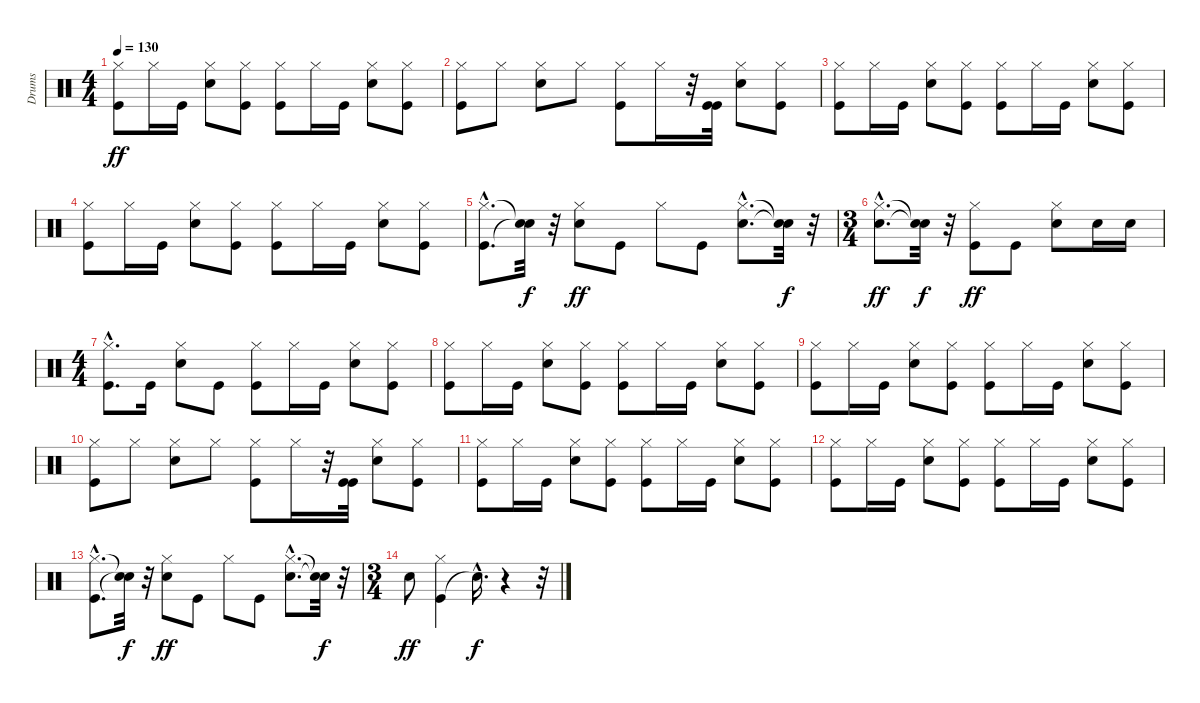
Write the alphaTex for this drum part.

\track ("Drums" "Drums") {instrument percussion}
\staff {score}
\articulation defaults
\ts (4 4)
\tempo 130
\clef neutral
\ks c
("Kick (hit)" "Hi-Hat (closed)").8{dy ff} "Hi-Hat (closed)".16 "Kick (hit)".16 ("Snare (hit) 2" "Hi-Hat (closed)").8 ("Kick (hit)" "Hi-Hat (closed)").8 ("Kick (hit)" "Hi-Hat (closed)").8 "Hi-Hat (closed)".16 "Kick (hit)".16 ("Snare (hit) 2" "Hi-Hat (closed)").8 ("Kick (hit)" "Hi-Hat (closed)").8 |
("Kick (hit)" "Hi-Hat (closed)").8 "Hi-Hat (closed)".8 ("Snare (hit) 2" "Hi-Hat (closed)").8 "Hi-Hat (closed)".8 ("Kick (hit)" "Hi-Hat (closed)").8 "Hi-Hat (closed)".16 r.32 ("Kick (hit)" "Kick (hit)").32 ("Snare (hit) 2" "Hi-Hat (closed)").8 ("Kick (hit)" "Hi-Hat (closed)").8 |
("Kick (hit)" "Hi-Hat (closed)").8 "Hi-Hat (closed)".16 "Kick (hit)".16 ("Snare (hit) 2" "Hi-Hat (closed)").8 ("Kick (hit)" "Hi-Hat (closed)").8 ("Kick (hit)" "Hi-Hat (closed)").8 "Hi-Hat (closed)".16 "Kick (hit)".16 ("Snare (hit) 2" "Hi-Hat (closed)").8 ("Kick (hit)" "Hi-Hat (closed)").8 |
("Kick (hit)" "Hi-Hat (closed)").8 "Hi-Hat (closed)".16 "Kick (hit)".16 ("Snare (hit) 2" "Hi-Hat (closed)").8 ("Kick (hit)" "Hi-Hat (closed)").8 ("Kick (hit)" "Hi-Hat (closed)").8 "Hi-Hat (closed)".16 "Kick (hit)".16 ("Snare (hit) 2" "Hi-Hat (closed)").8 ("Kick (hit)" "Hi-Hat (closed)").8 |
("Kick (hit)"{hac} "Hi-Hat (closed)"{hac}).8{d} ("Snare (hit)"{t} "Snare (hit)"{t}).32{dy f} r.32 ("Snare (hit) 2" "Hi-Hat (closed)").8{dy ff} "Kick (hit)".8 "Hi-Hat (closed)".8 "Kick (hit)".8 ("Snare (hit) 2"{hac} "Hi-Hat (closed)"{hac}).8{d} ("Snare (hit)"{t} "Snare (hit)"{t}).32{dy f} r.32 |
\ts (3 4)
("Snare (hit) 2"{hac} "Hi-Hat (closed)"{hac}).8{d dy ff} ("Snare (hit)"{t} "Snare (hit)"{t}).32{dy f} r.32 ("Kick (hit)" "Hi-Hat (closed)").8{dy ff} "Kick (hit)".8 ("Snare (hit) 2" "Hi-Hat (closed)").8 "Snare (hit) 2".16 "Snare (hit) 2".16 |
\ts (4 4)
("Kick (hit)"{hac} "Hi-Hat (closed)"{hac}).8{d} "Kick (hit)".16 ("Snare (hit) 2" "Hi-Hat (closed)").8 "Kick (hit)".8 ("Kick (hit)" "Hi-Hat (closed)").8 "Hi-Hat (closed)".16 "Kick (hit)".16 ("Snare (hit) 2" "Hi-Hat (closed)").8 ("Kick (hit)" "Hi-Hat (closed)").8 |
("Kick (hit)" "Hi-Hat (closed)").8 "Hi-Hat (closed)".16 "Kick (hit)".16 ("Snare (hit) 2" "Hi-Hat (closed)").8 ("Kick (hit)" "Hi-Hat (closed)").8 ("Kick (hit)" "Hi-Hat (closed)").8 "Hi-Hat (closed)".16 "Kick (hit)".16 ("Snare (hit) 2" "Hi-Hat (closed)").8 ("Kick (hit)" "Hi-Hat (closed)").8 |
("Kick (hit)" "Hi-Hat (closed)").8 "Hi-Hat (closed)".16 "Kick (hit)".16 ("Snare (hit) 2" "Hi-Hat (closed)").8 ("Kick (hit)" "Hi-Hat (closed)").8 ("Kick (hit)" "Hi-Hat (closed)").8 "Hi-Hat (closed)".16 "Kick (hit)".16 ("Snare (hit) 2" "Hi-Hat (closed)").8 ("Kick (hit)" "Hi-Hat (closed)").8 |
("Kick (hit)" "Hi-Hat (closed)").8 "Hi-Hat (closed)".8 ("Snare (hit) 2" "Hi-Hat (closed)").8 "Hi-Hat (closed)".8 ("Kick (hit)" "Hi-Hat (closed)").8 "Hi-Hat (closed)".16 r.32 ("Kick (hit)" "Kick (hit)").32 ("Snare (hit) 2" "Hi-Hat (closed)").8 ("Kick (hit)" "Hi-Hat (closed)").8 |
("Kick (hit)" "Hi-Hat (closed)").8 "Hi-Hat (closed)".16 "Kick (hit)".16 ("Snare (hit) 2" "Hi-Hat (closed)").8 ("Kick (hit)" "Hi-Hat (closed)").8 ("Kick (hit)" "Hi-Hat (closed)").8 "Hi-Hat (closed)".16 "Kick (hit)".16 ("Snare (hit) 2" "Hi-Hat (closed)").8 ("Kick (hit)" "Hi-Hat (closed)").8 |
("Kick (hit)" "Hi-Hat (closed)").8 "Hi-Hat (closed)".16 "Kick (hit)".16 ("Snare (hit) 2" "Hi-Hat (closed)").8 ("Kick (hit)" "Hi-Hat (closed)").8 ("Kick (hit)" "Hi-Hat (closed)").8 "Hi-Hat (closed)".16 "Kick (hit)".16 ("Snare (hit) 2" "Hi-Hat (closed)").8 ("Kick (hit)" "Hi-Hat (closed)").8 |
("Kick (hit)"{hac} "Hi-Hat (closed)"{hac}).8{d} ("Snare (hit)"{t} "Snare (hit)"{t}).32{dy f} r.32 ("Snare (hit) 2" "Hi-Hat (closed)").8{dy ff} "Kick (hit)".8 "Hi-Hat (closed)".8 "Kick (hit)".8 ("Snare (hit) 2"{hac} "Hi-Hat (closed)"{hac}).8{d} ("Snare (hit)"{t} "Snare (hit)"{t}).32{dy f} r.32 |
\ts (3 4)
"Snare (hit) 2".8{dy ff} ("Kick (hit)" "Hi-Hat (closed)").4 "Snare (hit)"{hac t}.16{d dy f} r.4 r.32
